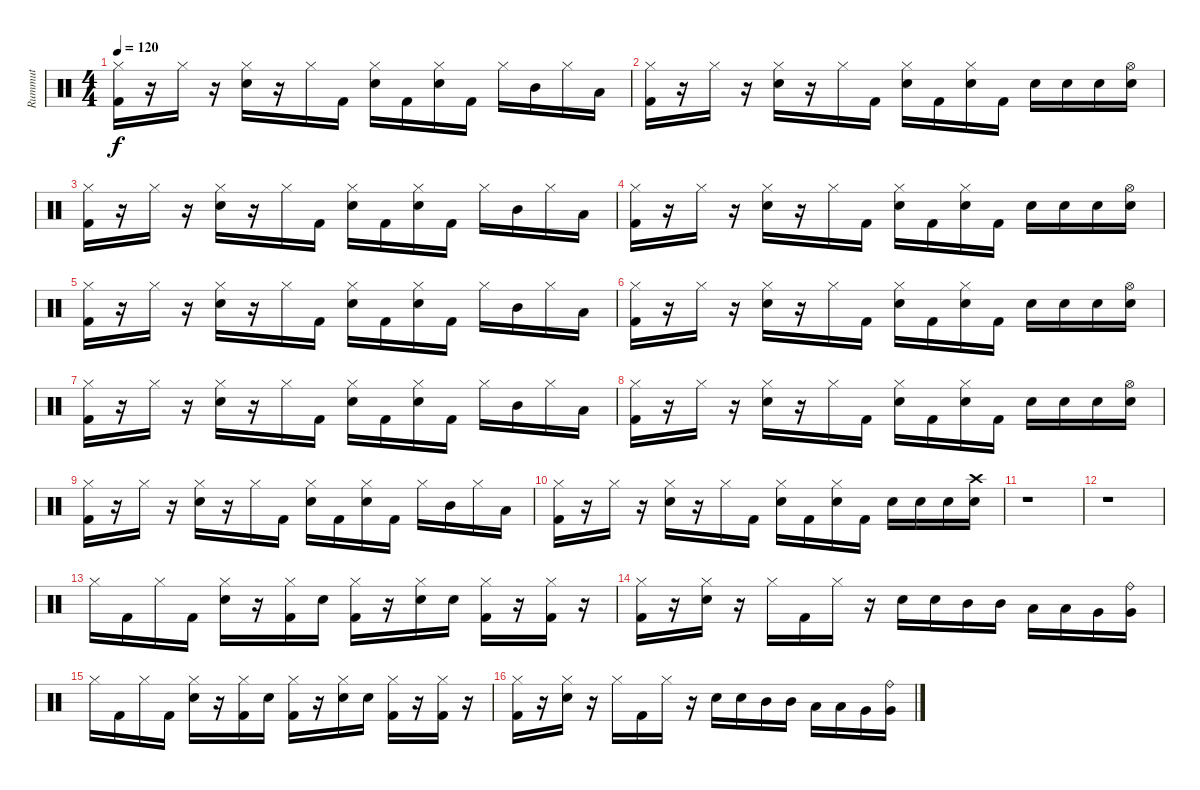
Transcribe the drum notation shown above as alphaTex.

\track ("Rummut" "Rummut") {instrument percussion}
\staff {score}
\articulation defaults
\ts (4 4)
\tempo 120
\clef neutral
\ks c
("Hi-Hat (closed)" "Kick (hit) 2").16{dy f} r.16 "Hi-Hat (closed)".16 r.16 ("Hi-Hat (closed)" "Snare (hit) 2").16 r.16 "Hi-Hat (closed)".16 "Kick (hit) 2".16 ("Hi-Hat (closed)" "Snare (hit) 2").16 "Kick (hit) 2".16 ("Hi-Hat (closed)" "Snare (hit) 2").16 "Kick (hit) 2".16 "Hi-Hat (closed)".16 "Mid Tom (hit)".16 "Hi-Hat (closed)".16 "Low Tom (hit)".16 |
("Hi-Hat (closed)" "Kick (hit) 2").16 r.16 "Hi-Hat (closed)".16 r.16 ("Hi-Hat (closed)" "Snare (hit) 2").16 r.16 "Hi-Hat (closed)".16 "Kick (hit) 2".16 ("Hi-Hat (closed)" "Snare (hit) 2").16 "Kick (hit) 2".16 ("Hi-Hat (closed)" "Snare (hit) 2").16 "Kick (hit) 2".16 "Snare (hit) 2".16 "Snare (hit) 2".16 "Snare (hit) 2".16 ("Hi-Hat (open)" "Snare (hit) 2").16 |
("Hi-Hat (closed)" "Kick (hit) 2").16 r.16 "Hi-Hat (closed)".16 r.16 ("Hi-Hat (closed)" "Snare (hit) 2").16 r.16 "Hi-Hat (closed)".16 "Kick (hit) 2".16 ("Hi-Hat (closed)" "Snare (hit) 2").16 "Kick (hit) 2".16 ("Hi-Hat (closed)" "Snare (hit) 2").16 "Kick (hit) 2".16 "Hi-Hat (closed)".16 "Mid Tom (hit)".16 "Hi-Hat (closed)".16 "Low Tom (hit)".16 |
("Hi-Hat (closed)" "Kick (hit) 2").16 r.16 "Hi-Hat (closed)".16 r.16 ("Hi-Hat (closed)" "Snare (hit) 2").16 r.16 "Hi-Hat (closed)".16 "Kick (hit) 2".16 ("Hi-Hat (closed)" "Snare (hit) 2").16 "Kick (hit) 2".16 ("Hi-Hat (closed)" "Snare (hit) 2").16 "Kick (hit) 2".16 "Snare (hit) 2".16 "Snare (hit) 2".16 "Snare (hit) 2".16 ("Hi-Hat (open)" "Snare (hit) 2").16 |
("Hi-Hat (closed)" "Kick (hit) 2").16 r.16 "Hi-Hat (closed)".16 r.16 ("Hi-Hat (closed)" "Snare (hit) 2").16 r.16 "Hi-Hat (closed)".16 "Kick (hit) 2".16 ("Hi-Hat (closed)" "Snare (hit) 2").16 "Kick (hit) 2".16 ("Hi-Hat (closed)" "Snare (hit) 2").16 "Kick (hit) 2".16 "Hi-Hat (closed)".16 "Mid Tom (hit)".16 "Hi-Hat (closed)".16 "Low Tom (hit)".16 |
("Hi-Hat (closed)" "Kick (hit) 2").16 r.16 "Hi-Hat (closed)".16 r.16 ("Hi-Hat (closed)" "Snare (hit) 2").16 r.16 "Hi-Hat (closed)".16 "Kick (hit) 2".16 ("Hi-Hat (closed)" "Snare (hit) 2").16 "Kick (hit) 2".16 ("Hi-Hat (closed)" "Snare (hit) 2").16 "Kick (hit) 2".16 "Snare (hit) 2".16 "Snare (hit) 2".16 "Snare (hit) 2".16 ("Hi-Hat (open)" "Snare (hit) 2").16 |
("Hi-Hat (closed)" "Kick (hit) 2").16 r.16 "Hi-Hat (closed)".16 r.16 ("Hi-Hat (closed)" "Snare (hit) 2").16 r.16 "Hi-Hat (closed)".16 "Kick (hit) 2".16 ("Hi-Hat (closed)" "Snare (hit) 2").16 "Kick (hit) 2".16 ("Hi-Hat (closed)" "Snare (hit) 2").16 "Kick (hit) 2".16 "Hi-Hat (closed)".16 "Mid Tom (hit)".16 "Hi-Hat (closed)".16 "Low Tom (hit)".16 |
("Hi-Hat (closed)" "Kick (hit) 2").16 r.16 "Hi-Hat (closed)".16 r.16 ("Hi-Hat (closed)" "Snare (hit) 2").16 r.16 "Hi-Hat (closed)".16 "Kick (hit) 2".16 ("Hi-Hat (closed)" "Snare (hit) 2").16 "Kick (hit) 2".16 ("Hi-Hat (closed)" "Snare (hit) 2").16 "Kick (hit) 2".16 "Snare (hit) 2".16 "Snare (hit) 2".16 "Snare (hit) 2".16 ("Hi-Hat (open)" "Snare (hit) 2").16 |
("Hi-Hat (closed)" "Kick (hit) 2").16 r.16 "Hi-Hat (closed)".16 r.16 ("Hi-Hat (closed)" "Snare (hit) 2").16 r.16 "Hi-Hat (closed)".16 "Kick (hit) 2".16 ("Hi-Hat (closed)" "Snare (hit) 2").16 "Kick (hit) 2".16 ("Hi-Hat (closed)" "Snare (hit) 2").16 "Kick (hit) 2".16 "Hi-Hat (closed)".16 "Mid Tom (hit)".16 "Hi-Hat (closed)".16 "Low Tom (hit)".16 |
("Hi-Hat (closed)" "Kick (hit) 2").16 r.16 "Hi-Hat (closed)".16 r.16 ("Hi-Hat (closed)" "Snare (hit) 2").16 r.16 "Hi-Hat (closed)".16 "Kick (hit) 2".16 ("Hi-Hat (closed)" "Snare (hit) 2").16 "Kick (hit) 2".16 ("Hi-Hat (closed)" "Snare (hit) 2").16 "Kick (hit) 2".16 "Snare (hit) 2".16 "Snare (hit) 2".16 "Snare (hit) 2".16 ("Crash high (hit)" "Snare (hit) 2").16 |
r.1 |
r.1 |
"Hi-Hat (closed)".16 "Kick (hit) 2".16 "Hi-Hat (closed)".16 "Kick (hit) 2".16 ("Hi-Hat (closed)" "Snare (hit) 2").16 r.16 ("Hi-Hat (closed)" "Kick (hit) 2").16 "Snare (hit) 2".16 ("Hi-Hat (closed)" "Kick (hit) 2").16 r.16 ("Hi-Hat (closed)" "Snare (hit) 2").16 "Snare (hit) 2".16 ("Hi-Hat (closed)" "Kick (hit) 2").16 r.16 ("Hi-Hat (closed)" "Kick (hit) 2").16 r.16 |
("Hi-Hat (closed)" "Kick (hit) 2").16 r.16 ("Hi-Hat (closed)" "Snare (hit) 2").16 r.16 "Hi-Hat (closed)".16 "Kick (hit) 2".16 "Hi-Hat (closed)".16 r.16 "Snare (hit) 2".16 "Snare (hit) 2".16 "Mid Tom (hit)".16 "Mid Tom (hit)".16 "Low Tom (hit)".16 "Low Tom (hit)".16 "Very Low Tom (hit)".16 ("Very Low Tom (hit)" "Ride (bell)").16 |
"Hi-Hat (closed)".16 "Kick (hit) 2".16 "Hi-Hat (closed)".16 "Kick (hit) 2".16 ("Hi-Hat (closed)" "Snare (hit) 2").16 r.16 ("Hi-Hat (closed)" "Kick (hit) 2").16 "Snare (hit) 2".16 ("Hi-Hat (closed)" "Kick (hit) 2").16 r.16 ("Hi-Hat (closed)" "Snare (hit) 2").16 "Snare (hit) 2".16 ("Hi-Hat (closed)" "Kick (hit) 2").16 r.16 ("Hi-Hat (closed)" "Kick (hit) 2").16 r.16 |
("Hi-Hat (closed)" "Kick (hit) 2").16 r.16 ("Hi-Hat (closed)" "Snare (hit) 2").16 r.16 "Hi-Hat (closed)".16 "Kick (hit) 2".16 "Hi-Hat (closed)".16 r.16 "Snare (hit) 2".16 "Snare (hit) 2".16 "Mid Tom (hit)".16 "Mid Tom (hit)".16 "Low Tom (hit)".16 "Low Tom (hit)".16 "Very Low Tom (hit)".16 ("Very Low Tom (hit)" "Ride (bell)").16
